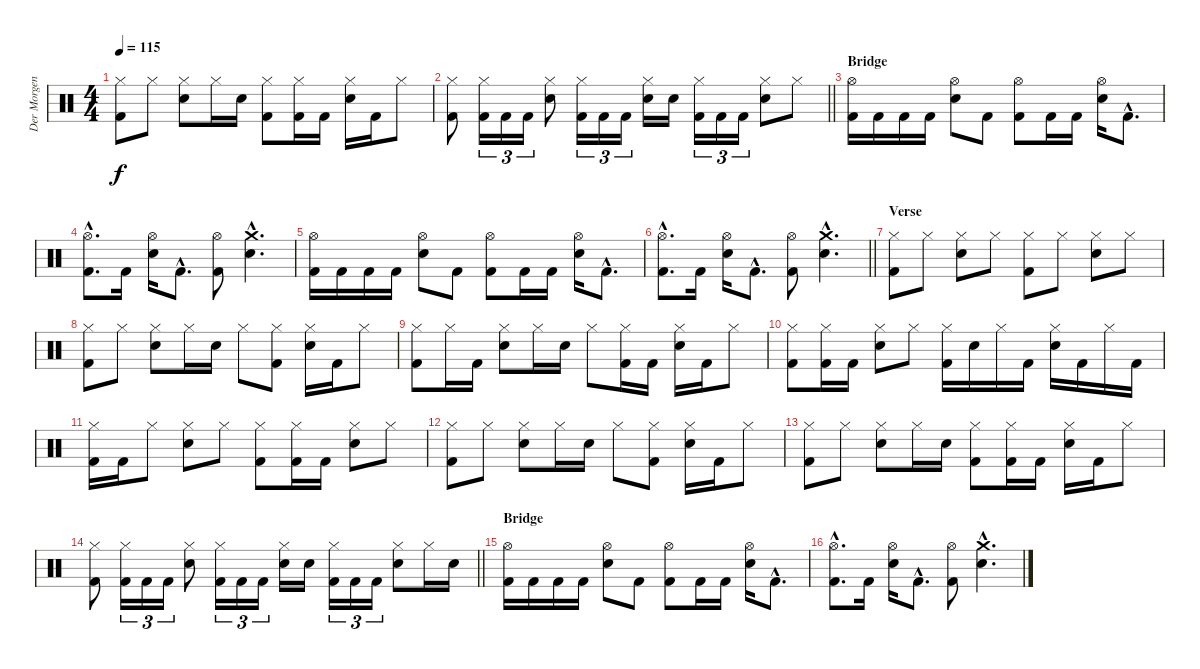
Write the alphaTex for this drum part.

\track ("Der Morgenstern" "Der Morgen") {instrument percussion}
\staff {score}
\articulation defaults
\ts (4 4)
\tempo 115
\clef neutral
\ks c
("Hi-Hat (closed)" "Kick (hit) 2").8{dy f} "Hi-Hat (closed)".8 ("Hi-Hat (closed)" "Electric Snare (hit)").8 "Hi-Hat (closed)".16 "Electric Snare (hit)".16 ("Hi-Hat (closed)" "Kick (hit) 2").8 ("Hi-Hat (closed)" "Kick (hit) 2").16 "Kick (hit) 2".16 ("Hi-Hat (closed)" "Electric Snare (hit)").16 "Kick (hit) 2".16 "Hi-Hat (closed)".8 |
\barLineRight lightlight
("Hi-Hat (closed)" "Kick (hit) 2").8 ("Hi-Hat (closed)" "Kick (hit) 2").16{tu (3 2)} "Kick (hit) 2".16{tu (3 2)} "Kick (hit) 2".16{tu (3 2)} ("Hi-Hat (closed)" "Electric Snare (hit)").8 ("Hi-Hat (closed)" "Kick (hit) 2").16{tu (3 2)} "Kick (hit) 2".16{tu (3 2)} "Kick (hit) 2".16{tu (3 2)} ("Hi-Hat (closed)" "Electric Snare (hit)").16 "Electric Snare (hit)".16 ("Hi-Hat (closed)" "Kick (hit) 2").16{tu (3 2)} "Kick (hit) 2".16{tu (3 2)} "Kick (hit) 2".16{tu (3 2)} ("Hi-Hat (closed)" "Electric Snare (hit)").8 "Hi-Hat (closed)".8 |
\section ("" "Bridge")
("Hi-Hat (open)" "Kick (hit) 2").16 "Kick (hit) 2".16 "Kick (hit) 2".16 "Kick (hit) 2".16 ("Hi-Hat (open)" "Electric Snare (hit)").8 "Kick (hit) 2".8 ("Hi-Hat (open)" "Kick (hit) 2").8 "Kick (hit) 2".16 "Kick (hit) 2".16 ("Hi-Hat (open)" "Electric Snare (hit)").16 "Kick (hit) 2"{hac}.8{d} |
("Hi-Hat (open)"{hac} "Kick (hit) 2"{hac}).8{d} "Kick (hit) 2".16 ("Hi-Hat (open)" "Electric Snare (hit)").16 "Kick (hit) 2"{hac}.8{d} ("Hi-Hat (open)" "Kick (hit) 2").8 ("Crash medium (hit)"{hac} "Electric Snare (hit)"{hac}).4{d} |
("Hi-Hat (open)" "Kick (hit) 2").16 "Kick (hit) 2".16 "Kick (hit) 2".16 "Kick (hit) 2".16 ("Hi-Hat (open)" "Electric Snare (hit)").8 "Kick (hit) 2".8 ("Hi-Hat (open)" "Kick (hit) 2").8 "Kick (hit) 2".16 "Kick (hit) 2".16 ("Hi-Hat (open)" "Electric Snare (hit)").16 "Kick (hit) 2"{hac}.8{d} |
\barLineRight lightlight
("Hi-Hat (open)"{hac} "Kick (hit) 2"{hac}).8{d} "Kick (hit) 2".16 ("Hi-Hat (open)" "Electric Snare (hit)").16 "Kick (hit) 2"{hac}.8{d} ("Hi-Hat (open)" "Kick (hit) 2").8 ("Crash medium (hit)"{hac} "Electric Snare (hit)"{hac}).4{d} |
\section ("" "Verse")
("Hi-Hat (closed)" "Kick (hit) 2").8 "Hi-Hat (closed)".8 ("Hi-Hat (closed)" "Electric Snare (hit)").8 "Hi-Hat (closed)".8 ("Hi-Hat (closed)" "Kick (hit) 2").8 "Hi-Hat (closed)".8 ("Hi-Hat (closed)" "Electric Snare (hit)").8 "Hi-Hat (closed)".8 |
("Hi-Hat (closed)" "Kick (hit) 2").8 "Hi-Hat (closed)".8 ("Hi-Hat (closed)" "Electric Snare (hit)").8 "Hi-Hat (closed)".16 "Electric Snare (hit)".16 "Hi-Hat (closed)".8 ("Hi-Hat (closed)" "Kick (hit) 2").8 ("Hi-Hat (closed)" "Electric Snare (hit)").16 "Kick (hit) 2".16 "Hi-Hat (closed)".8 |
("Hi-Hat (closed)" "Kick (hit) 2").8 "Hi-Hat (closed)".16 "Kick (hit) 2".16 ("Hi-Hat (closed)" "Electric Snare (hit)").8 "Hi-Hat (closed)".16 "Electric Snare (hit)".16 "Hi-Hat (closed)".8 ("Hi-Hat (closed)" "Kick (hit) 2").16 "Kick (hit) 2".16 ("Hi-Hat (closed)" "Electric Snare (hit)").16 "Kick (hit) 2".16 "Hi-Hat (closed)".8 |
("Hi-Hat (closed)" "Kick (hit) 2").8 ("Hi-Hat (closed)" "Kick (hit) 2").16 "Kick (hit) 2".16 ("Hi-Hat (closed)" "Electric Snare (hit)").8 "Hi-Hat (closed)".8 ("Hi-Hat (closed)" "Kick (hit) 2").16 "Electric Snare (hit)".16 "Hi-Hat (closed)".16 "Kick (hit) 2".16 ("Hi-Hat (closed)" "Electric Snare (hit)").16 "Kick (hit) 2".16 "Hi-Hat (closed)".16 "Kick (hit) 2".16 |
("Hi-Hat (closed)" "Kick (hit) 2").16 "Kick (hit) 2".16 "Hi-Hat (closed)".8 ("Hi-Hat (closed)" "Electric Snare (hit)").8 "Hi-Hat (closed)".8 ("Hi-Hat (closed)" "Kick (hit) 2").8 ("Hi-Hat (closed)" "Kick (hit) 2").16 "Kick (hit) 2".16 ("Hi-Hat (closed)" "Electric Snare (hit)").8 "Hi-Hat (closed)".8 |
("Hi-Hat (closed)" "Kick (hit) 2").8 "Hi-Hat (closed)".8 ("Hi-Hat (closed)" "Electric Snare (hit)").8 "Hi-Hat (closed)".16 "Electric Snare (hit)".16 "Hi-Hat (closed)".8 ("Hi-Hat (closed)" "Kick (hit) 2").8 ("Hi-Hat (closed)" "Electric Snare (hit)").16 "Kick (hit) 2".16 "Hi-Hat (closed)".8 |
("Hi-Hat (closed)" "Kick (hit) 2").8 "Hi-Hat (closed)".8 ("Hi-Hat (closed)" "Electric Snare (hit)").8 "Hi-Hat (closed)".16 "Electric Snare (hit)".16 ("Hi-Hat (closed)" "Kick (hit) 2").8 ("Hi-Hat (closed)" "Kick (hit) 2").16 "Kick (hit) 2".16 ("Hi-Hat (closed)" "Electric Snare (hit)").16 "Kick (hit) 2".16 "Hi-Hat (closed)".8 |
\barLineRight lightlight
("Hi-Hat (closed)" "Kick (hit) 2").8 ("Hi-Hat (closed)" "Kick (hit) 2").16{tu (3 2)} "Kick (hit) 2".16{tu (3 2)} "Kick (hit) 2".16{tu (3 2)} ("Hi-Hat (closed)" "Electric Snare (hit)").8 ("Hi-Hat (closed)" "Kick (hit) 2").16{tu (3 2)} "Kick (hit) 2".16{tu (3 2)} "Kick (hit) 2".16{tu (3 2)} ("Hi-Hat (closed)" "Electric Snare (hit)").16 "Electric Snare (hit)".16 ("Hi-Hat (closed)" "Kick (hit) 2").16{tu (3 2)} "Kick (hit) 2".16{tu (3 2)} "Kick (hit) 2".16{tu (3 2)} ("Hi-Hat (closed)" "Electric Snare (hit)").8 "Hi-Hat (closed)".16 "Electric Snare (hit)".16 |
\section ("" "Bridge")
("Hi-Hat (open)" "Kick (hit) 2").16 "Kick (hit) 2".16 "Kick (hit) 2".16 "Kick (hit) 2".16 ("Hi-Hat (open)" "Electric Snare (hit)").8 "Kick (hit) 2".8 ("Hi-Hat (open)" "Kick (hit) 2").8 "Kick (hit) 2".16 "Kick (hit) 2".16 ("Hi-Hat (open)" "Electric Snare (hit)").16 "Kick (hit) 2"{hac}.8{d} |
("Hi-Hat (open)"{hac} "Kick (hit) 2"{hac}).8{d} "Kick (hit) 2".16 ("Hi-Hat (open)" "Electric Snare (hit)").16 "Kick (hit) 2"{hac}.8{d} ("Hi-Hat (open)" "Kick (hit) 2").8 ("Crash medium (hit)"{hac} "Electric Snare (hit)"{hac}).4{d}
